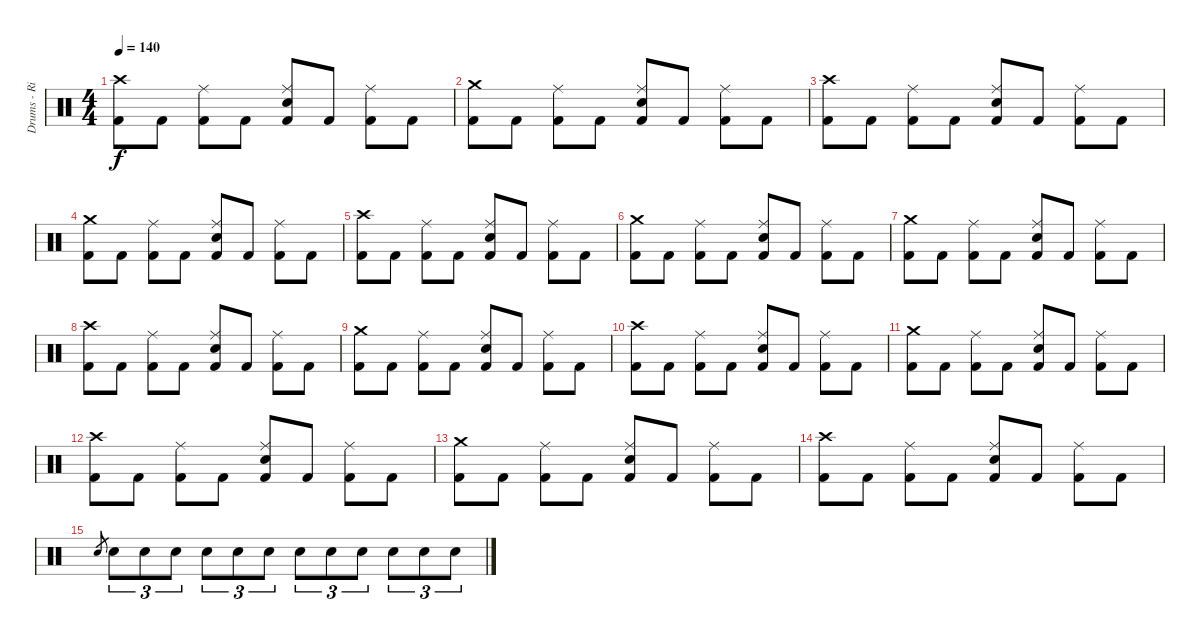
\track ("Drums - Riley" "Drums - Ri") {instrument percussion}
\staff {score}
\articulation defaults
\ts (4 4)
\tempo 140
\clef neutral
\ks c
("Kick (hit) 2" "Crash high (hit)").8{dy f} "Kick (hit) 2".8 ("Kick (hit) 2" "Ride (middle)").8 "Kick (hit) 2".8 ("Kick (hit) 2" "Electric Snare (hit)" "Ride (middle)").8 "Kick (hit) 2".8 ("Kick (hit) 2" "Ride (middle)").8 "Kick (hit) 2".8 |
("Kick (hit) 2" "Crash medium (hit)").8 "Kick (hit) 2".8 ("Kick (hit) 2" "Ride (middle)").8 "Kick (hit) 2".8 ("Kick (hit) 2" "Electric Snare (hit)" "Ride (middle)").8 "Kick (hit) 2".8 ("Kick (hit) 2" "Ride (middle)").8 "Kick (hit) 2".8 |
("Kick (hit) 2" "Crash high (hit)").8 "Kick (hit) 2".8 ("Kick (hit) 2" "Ride (middle)").8 "Kick (hit) 2".8 ("Kick (hit) 2" "Electric Snare (hit)" "Ride (middle)").8 "Kick (hit) 2".8 ("Kick (hit) 2" "Ride (middle)").8 "Kick (hit) 2".8 |
("Kick (hit) 2" "Crash medium (hit)").8 "Kick (hit) 2".8 ("Kick (hit) 2" "Ride (middle)").8 "Kick (hit) 2".8 ("Kick (hit) 2" "Electric Snare (hit)" "Ride (middle)").8 "Kick (hit) 2".8 ("Kick (hit) 2" "Ride (middle)").8 "Kick (hit) 2".8 |
("Kick (hit) 2" "Crash high (hit)").8 "Kick (hit) 2".8 ("Kick (hit) 2" "Ride (middle)").8 "Kick (hit) 2".8 ("Kick (hit) 2" "Electric Snare (hit)" "Ride (middle)").8 "Kick (hit) 2".8 ("Kick (hit) 2" "Ride (middle)").8 "Kick (hit) 2".8 |
("Kick (hit) 2" "Crash medium (hit)").8 "Kick (hit) 2".8 ("Kick (hit) 2" "Ride (middle)").8 "Kick (hit) 2".8 ("Kick (hit) 2" "Electric Snare (hit)" "Ride (middle)").8 "Kick (hit) 2".8 ("Kick (hit) 2" "Ride (middle)").8 "Kick (hit) 2".8 |
("Kick (hit) 2" "Crash medium (hit)").8 "Kick (hit) 2".8 ("Kick (hit) 2" "Ride (middle)").8 "Kick (hit) 2".8 ("Kick (hit) 2" "Electric Snare (hit)" "Ride (middle)").8 "Kick (hit) 2".8 ("Kick (hit) 2" "Ride (middle)").8 "Kick (hit) 2".8 |
("Kick (hit) 2" "Crash high (hit)").8 "Kick (hit) 2".8 ("Kick (hit) 2" "Ride (middle)").8 "Kick (hit) 2".8 ("Kick (hit) 2" "Electric Snare (hit)" "Ride (middle)").8 "Kick (hit) 2".8 ("Kick (hit) 2" "Ride (middle)").8 "Kick (hit) 2".8 |
("Kick (hit) 2" "Crash medium (hit)").8 "Kick (hit) 2".8 ("Kick (hit) 2" "Ride (middle)").8 "Kick (hit) 2".8 ("Kick (hit) 2" "Electric Snare (hit)" "Ride (middle)").8 "Kick (hit) 2".8 ("Kick (hit) 2" "Ride (middle)").8 "Kick (hit) 2".8 |
("Kick (hit) 2" "Crash high (hit)").8 "Kick (hit) 2".8 ("Kick (hit) 2" "Ride (middle)").8 "Kick (hit) 2".8 ("Kick (hit) 2" "Electric Snare (hit)" "Ride (middle)").8 "Kick (hit) 2".8 ("Kick (hit) 2" "Ride (middle)").8 "Kick (hit) 2".8 |
("Kick (hit) 2" "Crash medium (hit)").8 "Kick (hit) 2".8 ("Kick (hit) 2" "Ride (middle)").8 "Kick (hit) 2".8 ("Kick (hit) 2" "Electric Snare (hit)" "Ride (middle)").8 "Kick (hit) 2".8 ("Kick (hit) 2" "Ride (middle)").8 "Kick (hit) 2".8 |
("Kick (hit) 2" "Crash high (hit)").8 "Kick (hit) 2".8 ("Kick (hit) 2" "Ride (middle)").8 "Kick (hit) 2".8 ("Kick (hit) 2" "Electric Snare (hit)" "Ride (middle)").8 "Kick (hit) 2".8 ("Kick (hit) 2" "Ride (middle)").8 "Kick (hit) 2".8 |
("Kick (hit) 2" "Crash medium (hit)").8 "Kick (hit) 2".8 ("Kick (hit) 2" "Ride (middle)").8 "Kick (hit) 2".8 ("Kick (hit) 2" "Electric Snare (hit)" "Ride (middle)").8 "Kick (hit) 2".8 ("Kick (hit) 2" "Ride (middle)").8 "Kick (hit) 2".8 |
("Kick (hit) 2" "Crash high (hit)").8 "Kick (hit) 2".8 ("Kick (hit) 2" "Ride (middle)").8 "Kick (hit) 2".8 ("Kick (hit) 2" "Electric Snare (hit)" "Ride (middle)").8 "Kick (hit) 2".8 ("Kick (hit) 2" "Ride (middle)").8 "Kick (hit) 2".8 |
"Electric Snare (hit)".8{gr} "Electric Snare (hit)".8{tu (3 2)} "Electric Snare (hit)".8{tu (3 2)} "Electric Snare (hit)".8{tu (3 2)} "Electric Snare (hit)".8{tu (3 2)} "Electric Snare (hit)".8{tu (3 2)} "Electric Snare (hit)".8{tu (3 2)} "Electric Snare (hit)".8{tu (3 2)} "Electric Snare (hit)".8{tu (3 2)} "Electric Snare (hit)".8{tu (3 2)} "Electric Snare (hit)".8{tu (3 2)} "Electric Snare (hit)".8{tu (3 2)} "Electric Snare (hit)".8{tu (3 2)}
